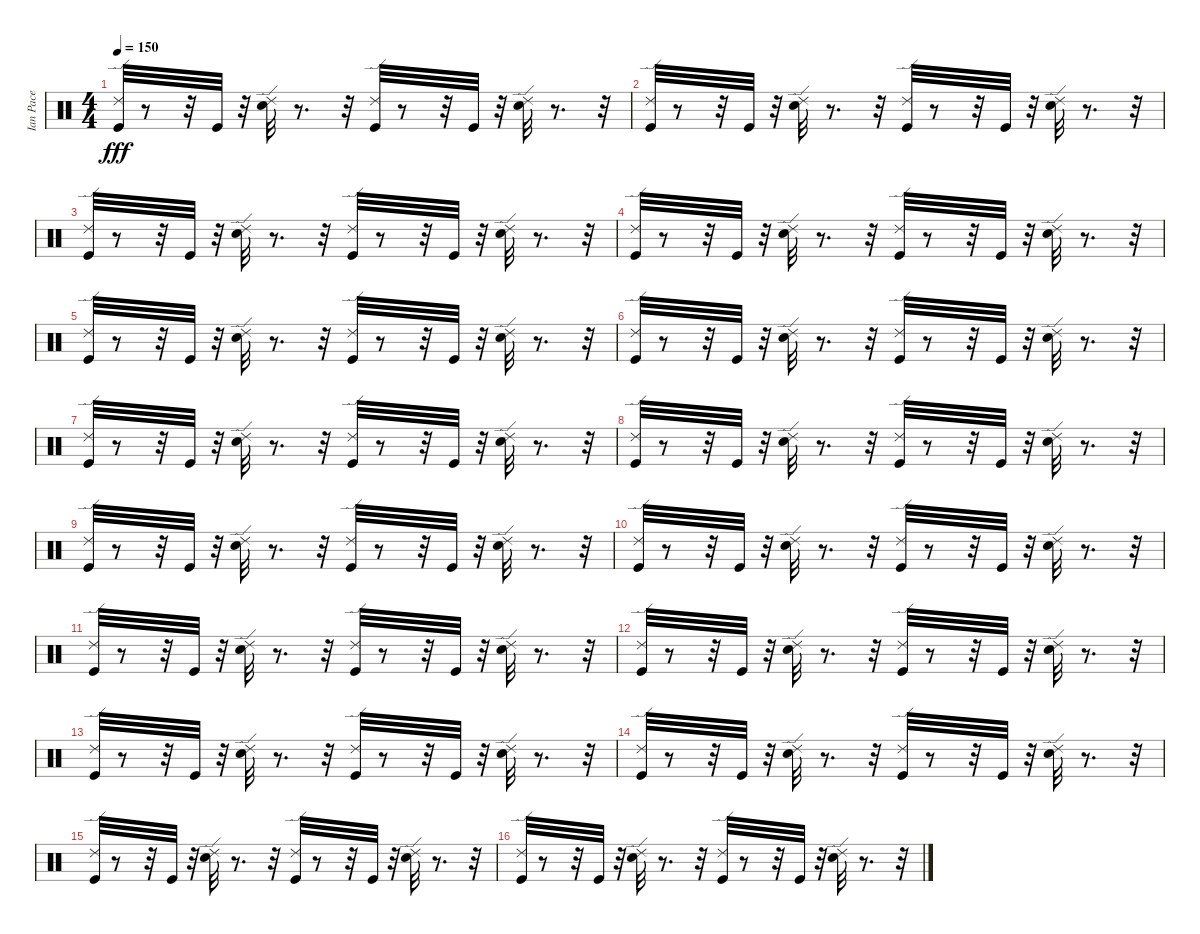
\track ("Ian Pace" "Ian Pace") {instrument percussion}
\staff {score}
\articulation defaults
\ts (4 4)
\tempo 150
\clef neutral
\ks c
("Ride (edge) 2" "Kick (hit)").32{dy fff} r.8 r.32 "Kick (hit)".32 r.32 ("Electric Snare (hit)" "Ride (edge) 2").32 r.8{d} r.32 ("Ride (edge) 2" "Kick (hit)").32 r.8 r.32 "Kick (hit)".32 r.32 ("Electric Snare (hit)" "Ride (edge) 2").32 r.8{d} r.32 |
("Ride (edge) 2" "Kick (hit)").32 r.8 r.32 "Kick (hit)".32 r.32 ("Ride (edge) 2" "Electric Snare (hit)").32 r.8{d} r.32 ("Kick (hit)" "Ride (edge) 2").32 r.8 r.32 "Kick (hit)".32 r.32 ("Electric Snare (hit)" "Ride (edge) 2").32 r.8{d} r.32 |
("Ride (edge) 2" "Kick (hit)").32 r.8 r.32 "Kick (hit)".32 r.32 ("Electric Snare (hit)" "Ride (edge) 2").32 r.8{d} r.32 ("Ride (edge) 2" "Kick (hit)").32 r.8 r.32 "Kick (hit)".32 r.32 ("Ride (edge) 2" "Electric Snare (hit)").32 r.8{d} r.32 |
("Ride (edge) 2" "Kick (hit)").32 r.8 r.32 "Kick (hit)".32 r.32 ("Ride (edge) 2" "Electric Snare (hit)").32 r.8{d} r.32 ("Kick (hit)" "Ride (edge) 2").32 r.8 r.32 "Kick (hit)".32 r.32 ("Ride (edge) 2" "Electric Snare (hit)").32 r.8{d} r.32 |
("Kick (hit)" "Ride (edge) 2").32 r.8 r.32 "Kick (hit)".32 r.32 ("Electric Snare (hit)" "Ride (edge) 2").32 r.8{d} r.32 ("Kick (hit)" "Ride (edge) 2").32 r.8 r.32 "Kick (hit)".32 r.32 ("Electric Snare (hit)" "Ride (edge) 2").32 r.8{d} r.32 |
("Kick (hit)" "Ride (edge) 2").32 r.8 r.32 "Kick (hit)".32 r.32 ("Ride (edge) 2" "Electric Snare (hit)").32 r.8{d} r.32 ("Kick (hit)" "Ride (edge) 2").32 r.8 r.32 "Kick (hit)".32 r.32 ("Electric Snare (hit)" "Ride (edge) 2").32 r.8{d} r.32 |
("Kick (hit)" "Ride (edge) 2").32 r.8 r.32 "Kick (hit)".32 r.32 ("Ride (edge) 2" "Electric Snare (hit)").32 r.8{d} r.32 ("Kick (hit)" "Ride (edge) 2").32 r.8 r.32 "Kick (hit)".32 r.32 ("Electric Snare (hit)" "Ride (edge) 2").32 r.8{d} r.32 |
("Ride (edge) 2" "Kick (hit)").32 r.8 r.32 "Kick (hit)".32 r.32 ("Electric Snare (hit)" "Ride (edge) 2").32 r.8{d} r.32 ("Kick (hit)" "Ride (edge) 2").32 r.8 r.32 "Kick (hit)".32 r.32 ("Electric Snare (hit)" "Ride (edge) 2").32 r.8{d} r.32 |
("Kick (hit)" "Ride (edge) 2").32 r.8 r.32 "Kick (hit)".32 r.32 ("Ride (edge) 2" "Electric Snare (hit)").32 r.8{d} r.32 ("Ride (edge) 2" "Kick (hit)").32 r.8 r.32 "Kick (hit)".32 r.32 ("Electric Snare (hit)" "Ride (edge) 2").32 r.8{d} r.32 |
("Kick (hit)" "Ride (edge) 2").32 r.8 r.32 "Kick (hit)".32 r.32 ("Ride (edge) 2" "Electric Snare (hit)").32 r.8{d} r.32 ("Kick (hit)" "Ride (edge) 2").32 r.8 r.32 "Kick (hit)".32 r.32 ("Electric Snare (hit)" "Ride (edge) 2").32 r.8{d} r.32 |
("Ride (edge) 2" "Kick (hit)").32 r.8 r.32 "Kick (hit)".32 r.32 ("Electric Snare (hit)" "Ride (edge) 2").32 r.8{d} r.32 ("Ride (edge) 2" "Kick (hit)").32 r.8 r.32 "Kick (hit)".32 r.32 ("Ride (edge) 2" "Electric Snare (hit)").32 r.8{d} r.32 |
("Ride (edge) 2" "Kick (hit)").32 r.8 r.32 "Kick (hit)".32 r.32 ("Electric Snare (hit)" "Ride (edge) 2").32 r.8{d} r.32 ("Kick (hit)" "Ride (edge) 2").32 r.8 r.32 "Kick (hit)".32 r.32 ("Electric Snare (hit)" "Ride (edge) 2").32 r.8{d} r.32 |
("Kick (hit)" "Ride (edge) 2").32 r.8 r.32 "Kick (hit)".32 r.32 ("Electric Snare (hit)" "Ride (edge) 2").32 r.8{d} r.32 ("Ride (edge) 2" "Kick (hit)").32 r.8 r.32 "Kick (hit)".32 r.32 ("Ride (edge) 2" "Electric Snare (hit)").32 r.8{d} r.32 |
("Ride (edge) 2" "Kick (hit)").32 r.8 r.32 "Kick (hit)".32 r.32 ("Electric Snare (hit)" "Ride (edge) 2").32 r.8{d} r.32 ("Kick (hit)" "Ride (edge) 2").32 r.8 r.32 "Kick (hit)".32 r.32 ("Electric Snare (hit)" "Ride (edge) 2").32 r.8{d} r.32 |
("Ride (edge) 2" "Kick (hit)").32 r.8 r.32 "Kick (hit)".32 r.32 ("Ride (edge) 2" "Electric Snare (hit)").32 r.8{d} r.32 ("Ride (edge) 2" "Kick (hit)").32 r.8 r.32 "Kick (hit)".32 r.32 ("Electric Snare (hit)" "Ride (edge) 2").32 r.8{d} r.32 |
("Kick (hit)" "Ride (edge) 2").32 r.8 r.32 "Kick (hit)".32 r.32 ("Ride (edge) 2" "Electric Snare (hit)").32 r.8{d} r.32 ("Kick (hit)" "Ride (edge) 2").32 r.8 r.32 "Kick (hit)".32 r.32 ("Electric Snare (hit)" "Ride (edge) 2").32 r.8{d} r.32
